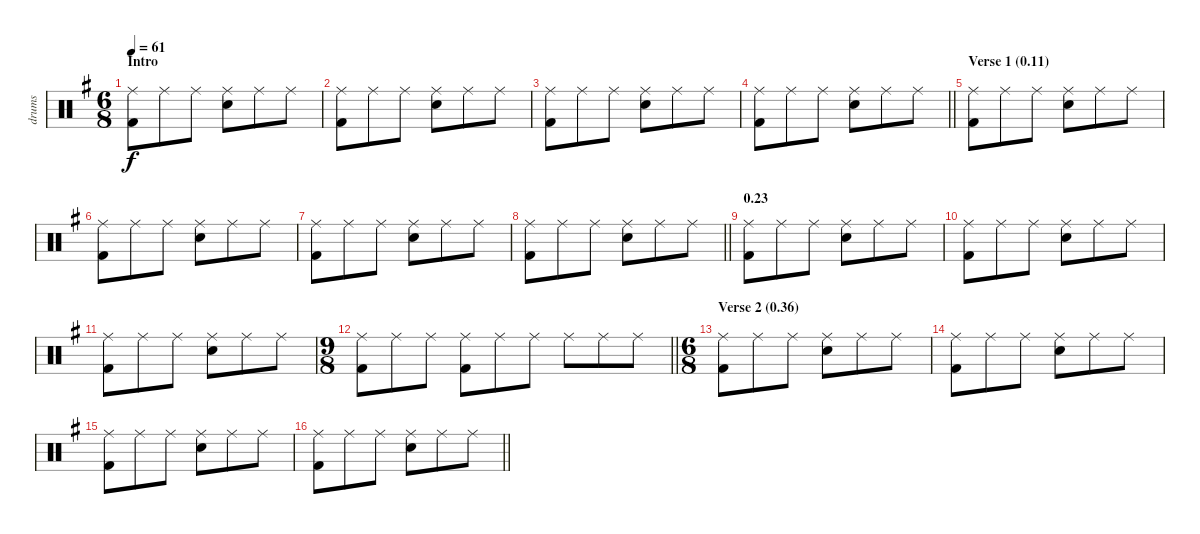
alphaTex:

\track ("drums" "drums") {instrument percussion}
\staff {score}
\articulation defaults
\ts (6 8)
\section ("" "Intro")
\tempo 61
\clef neutral
\ks g
("Ride (middle)" "Kick (hit) 2").8{dy f} "Ride (middle)".8 "Ride (middle)".8 ("Ride (middle)" "Electric Snare (hit)").8 "Ride (middle)".8 "Ride (middle)".8 |
("Ride (middle)" "Kick (hit) 2").8 "Ride (middle)".8 "Ride (middle)".8 ("Ride (middle)" "Electric Snare (hit)").8 "Ride (middle)".8 "Ride (middle)".8 |
("Ride (middle)" "Kick (hit) 2").8 "Ride (middle)".8 "Ride (middle)".8 ("Ride (middle)" "Electric Snare (hit)").8 "Ride (middle)".8 "Ride (middle)".8 |
\barLineRight lightlight
("Ride (middle)" "Kick (hit) 2").8 "Ride (middle)".8 "Ride (middle)".8 ("Ride (middle)" "Electric Snare (hit)").8 "Ride (middle)".8 "Ride (middle)".8 |
\section ("" "Verse 1 (0.11)")
("Ride (middle)" "Kick (hit) 2").8 "Ride (middle)".8 "Ride (middle)".8 ("Ride (middle)" "Electric Snare (hit)").8 "Ride (middle)".8 "Ride (middle)".8 |
("Ride (middle)" "Kick (hit) 2").8 "Ride (middle)".8 "Ride (middle)".8 ("Ride (middle)" "Electric Snare (hit)").8 "Ride (middle)".8 "Ride (middle)".8 |
("Ride (middle)" "Kick (hit) 2").8 "Ride (middle)".8 "Ride (middle)".8 ("Ride (middle)" "Electric Snare (hit)").8 "Ride (middle)".8 "Ride (middle)".8 |
\barLineRight lightlight
("Ride (middle)" "Kick (hit) 2").8 "Ride (middle)".8 "Ride (middle)".8 ("Ride (middle)" "Electric Snare (hit)").8 "Ride (middle)".8 "Ride (middle)".8 |
\section ("" "0.23")
("Ride (middle)" "Kick (hit) 2").8 "Ride (middle)".8 "Ride (middle)".8 ("Ride (middle)" "Electric Snare (hit)").8 "Ride (middle)".8 "Ride (middle)".8 |
("Ride (middle)" "Kick (hit) 2").8 "Ride (middle)".8 "Ride (middle)".8 ("Ride (middle)" "Electric Snare (hit)").8 "Ride (middle)".8 "Ride (middle)".8 |
("Ride (middle)" "Kick (hit) 2").8 "Ride (middle)".8 "Ride (middle)".8 ("Ride (middle)" "Electric Snare (hit)").8 "Ride (middle)".8 "Ride (middle)".8 |
\ts (9 8)
\barLineRight lightlight
("Ride (middle)" "Kick (hit) 2").8 "Ride (middle)".8 "Ride (middle)".8 ("Ride (middle)" "Kick (hit) 2").8 "Ride (middle)".8 "Ride (middle)".8 "Ride (middle)".8 "Ride (middle)".8 "Ride (middle)".8 |
\ts (6 8)
\section ("" "Verse 2 (0.36)")
("Ride (middle)" "Kick (hit) 2").8 "Ride (middle)".8 "Ride (middle)".8 ("Ride (middle)" "Electric Snare (hit)").8 "Ride (middle)".8 "Ride (middle)".8 |
("Ride (middle)" "Kick (hit) 2").8 "Ride (middle)".8 "Ride (middle)".8 ("Ride (middle)" "Electric Snare (hit)").8 "Ride (middle)".8 "Ride (middle)".8 |
("Ride (middle)" "Kick (hit) 2").8 "Ride (middle)".8 "Ride (middle)".8 ("Ride (middle)" "Electric Snare (hit)").8 "Ride (middle)".8 "Ride (middle)".8 |
\barLineRight lightlight
("Ride (middle)" "Kick (hit) 2").8 "Ride (middle)".8 "Ride (middle)".8 ("Ride (middle)" "Electric Snare (hit)").8 "Ride (middle)".8 "Ride (middle)".8
